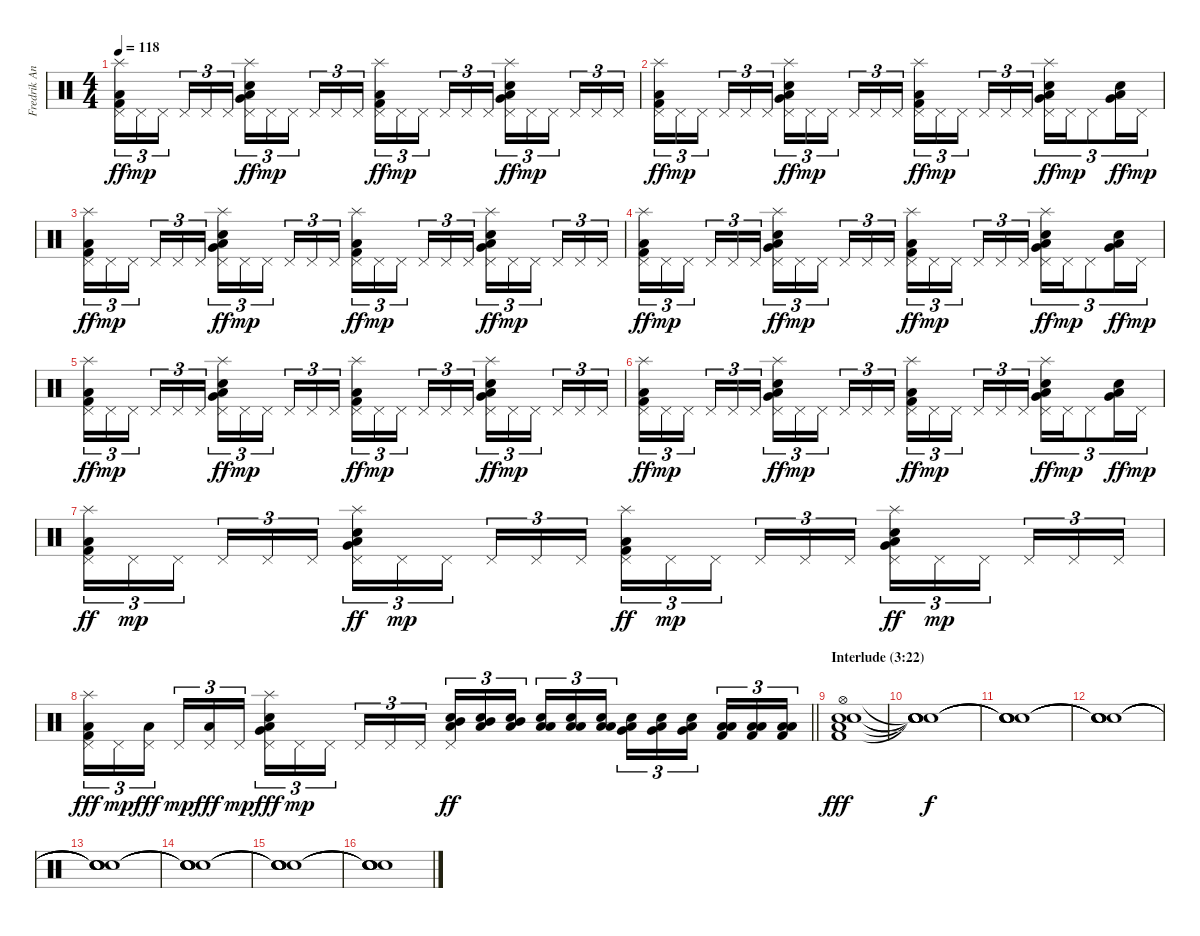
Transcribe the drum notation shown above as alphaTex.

\track ("Fredrik Andersson " "Fredrik An") {instrument percussion}
\staff {score}
\articulation defaults
\ts (4 4)
\tempo 118
\clef neutral
\ks c
("Splash (hit)" "Pedal Hi-Hat (hit)" "Kick (hit) 2" "Low Floor Tom (hit)").16{tu (3 2) dy ff} "Pedal Hi-Hat (hit)".16{tu (3 2) dy mp} "Pedal Hi-Hat (hit)".16{tu (3 2) beam splitsecondary} "Pedal Hi-Hat (hit)".16{tu (3 2)} "Pedal Hi-Hat (hit)".16{tu (3 2)} "Pedal Hi-Hat (hit)".16{tu (3 2)} ("Splash (hit)" "Pedal Hi-Hat (hit)" "Very Low Tom (hit)" "Snare (hit) 2" "Low Floor Tom (hit)").16{tu (3 2) dy ff} "Pedal Hi-Hat (hit)".16{tu (3 2) dy mp} "Pedal Hi-Hat (hit)".16{tu (3 2) beam splitsecondary} "Pedal Hi-Hat (hit)".16{tu (3 2)} "Pedal Hi-Hat (hit)".16{tu (3 2)} "Pedal Hi-Hat (hit)".16{tu (3 2)} ("Splash (hit)" "Pedal Hi-Hat (hit)" "Kick (hit) 2" "Low Floor Tom (hit)").16{tu (3 2) dy ff} "Pedal Hi-Hat (hit)".16{tu (3 2) dy mp} "Pedal Hi-Hat (hit)".16{tu (3 2) beam splitsecondary} "Pedal Hi-Hat (hit)".16{tu (3 2)} "Pedal Hi-Hat (hit)".16{tu (3 2)} "Pedal Hi-Hat (hit)".16{tu (3 2)} ("Splash (hit)" "Pedal Hi-Hat (hit)" "Very Low Tom (hit)" "Snare (hit) 2" "Low Floor Tom (hit)").16{tu (3 2) dy ff} "Pedal Hi-Hat (hit)".16{tu (3 2) dy mp} "Pedal Hi-Hat (hit)".16{tu (3 2) beam splitsecondary} "Pedal Hi-Hat (hit)".16{tu (3 2)} "Pedal Hi-Hat (hit)".16{tu (3 2)} "Pedal Hi-Hat (hit)".16{tu (3 2)} |
("Splash (hit)" "Pedal Hi-Hat (hit)" "Kick (hit) 2" "Low Floor Tom (hit)").16{tu (3 2) dy ff} "Pedal Hi-Hat (hit)".16{tu (3 2) dy mp} "Pedal Hi-Hat (hit)".16{tu (3 2) beam splitsecondary} "Pedal Hi-Hat (hit)".16{tu (3 2)} "Pedal Hi-Hat (hit)".16{tu (3 2)} "Pedal Hi-Hat (hit)".16{tu (3 2)} ("Splash (hit)" "Pedal Hi-Hat (hit)" "Very Low Tom (hit)" "Snare (hit) 2" "Low Floor Tom (hit)").16{tu (3 2) dy ff} "Pedal Hi-Hat (hit)".16{tu (3 2) dy mp} "Pedal Hi-Hat (hit)".16{tu (3 2) beam splitsecondary} "Pedal Hi-Hat (hit)".16{tu (3 2)} "Pedal Hi-Hat (hit)".16{tu (3 2)} "Pedal Hi-Hat (hit)".16{tu (3 2)} ("Splash (hit)" "Pedal Hi-Hat (hit)" "Kick (hit) 2" "Low Floor Tom (hit)").16{tu (3 2) dy ff} "Pedal Hi-Hat (hit)".16{tu (3 2) dy mp} "Pedal Hi-Hat (hit)".16{tu (3 2) beam splitsecondary} "Pedal Hi-Hat (hit)".16{tu (3 2)} "Pedal Hi-Hat (hit)".16{tu (3 2)} "Pedal Hi-Hat (hit)".16{tu (3 2)} ("Splash (hit)" "Pedal Hi-Hat (hit)" "Very Low Tom (hit)" "Snare (hit) 2" "Low Floor Tom (hit)").16{tu (3 2) dy ff} "Pedal Hi-Hat (hit)".16{tu (3 2) dy mp} "Pedal Hi-Hat (hit)".8{tu (3 2)} ("Very Low Tom (hit)" "Snare (hit) 2" "Low Floor Tom (hit)").16{tu (3 2) dy ff} "Pedal Hi-Hat (hit)".16{tu (3 2) dy mp} |
("Splash (hit)" "Pedal Hi-Hat (hit)" "Kick (hit) 2" "Low Floor Tom (hit)").16{tu (3 2) dy ff} "Pedal Hi-Hat (hit)".16{tu (3 2) dy mp} "Pedal Hi-Hat (hit)".16{tu (3 2) beam splitsecondary} "Pedal Hi-Hat (hit)".16{tu (3 2)} "Pedal Hi-Hat (hit)".16{tu (3 2)} "Pedal Hi-Hat (hit)".16{tu (3 2)} ("Splash (hit)" "Pedal Hi-Hat (hit)" "Very Low Tom (hit)" "Snare (hit) 2" "Low Floor Tom (hit)").16{tu (3 2) dy ff} "Pedal Hi-Hat (hit)".16{tu (3 2) dy mp} "Pedal Hi-Hat (hit)".16{tu (3 2) beam splitsecondary} "Pedal Hi-Hat (hit)".16{tu (3 2)} "Pedal Hi-Hat (hit)".16{tu (3 2)} "Pedal Hi-Hat (hit)".16{tu (3 2)} ("Splash (hit)" "Pedal Hi-Hat (hit)" "Kick (hit) 2" "Low Floor Tom (hit)").16{tu (3 2) dy ff} "Pedal Hi-Hat (hit)".16{tu (3 2) dy mp} "Pedal Hi-Hat (hit)".16{tu (3 2) beam splitsecondary} "Pedal Hi-Hat (hit)".16{tu (3 2)} "Pedal Hi-Hat (hit)".16{tu (3 2)} "Pedal Hi-Hat (hit)".16{tu (3 2)} ("Splash (hit)" "Pedal Hi-Hat (hit)" "Very Low Tom (hit)" "Snare (hit) 2" "Low Floor Tom (hit)").16{tu (3 2) dy ff} "Pedal Hi-Hat (hit)".16{tu (3 2) dy mp} "Pedal Hi-Hat (hit)".16{tu (3 2) beam splitsecondary} "Pedal Hi-Hat (hit)".16{tu (3 2)} "Pedal Hi-Hat (hit)".16{tu (3 2)} "Pedal Hi-Hat (hit)".16{tu (3 2)} |
("Splash (hit)" "Pedal Hi-Hat (hit)" "Kick (hit) 2" "Low Floor Tom (hit)").16{tu (3 2) dy ff} "Pedal Hi-Hat (hit)".16{tu (3 2) dy mp} "Pedal Hi-Hat (hit)".16{tu (3 2) beam splitsecondary} "Pedal Hi-Hat (hit)".16{tu (3 2)} "Pedal Hi-Hat (hit)".16{tu (3 2)} "Pedal Hi-Hat (hit)".16{tu (3 2)} ("Splash (hit)" "Pedal Hi-Hat (hit)" "Very Low Tom (hit)" "Snare (hit) 2" "Low Floor Tom (hit)").16{tu (3 2) dy ff} "Pedal Hi-Hat (hit)".16{tu (3 2) dy mp} "Pedal Hi-Hat (hit)".16{tu (3 2) beam splitsecondary} "Pedal Hi-Hat (hit)".16{tu (3 2)} "Pedal Hi-Hat (hit)".16{tu (3 2)} "Pedal Hi-Hat (hit)".16{tu (3 2)} ("Splash (hit)" "Pedal Hi-Hat (hit)" "Kick (hit) 2" "Low Floor Tom (hit)").16{tu (3 2) dy ff} "Pedal Hi-Hat (hit)".16{tu (3 2) dy mp} "Pedal Hi-Hat (hit)".16{tu (3 2) beam splitsecondary} "Pedal Hi-Hat (hit)".16{tu (3 2)} "Pedal Hi-Hat (hit)".16{tu (3 2)} "Pedal Hi-Hat (hit)".16{tu (3 2)} ("Splash (hit)" "Pedal Hi-Hat (hit)" "Very Low Tom (hit)" "Snare (hit) 2" "Low Floor Tom (hit)").16{tu (3 2) dy ff} "Pedal Hi-Hat (hit)".16{tu (3 2) dy mp} "Pedal Hi-Hat (hit)".8{tu (3 2)} ("Very Low Tom (hit)" "Snare (hit) 2" "Low Floor Tom (hit)").16{tu (3 2) dy ff} "Pedal Hi-Hat (hit)".16{tu (3 2) dy mp} |
("Splash (hit)" "Pedal Hi-Hat (hit)" "Kick (hit) 2" "Low Floor Tom (hit)").16{tu (3 2) dy ff} "Pedal Hi-Hat (hit)".16{tu (3 2) dy mp} "Pedal Hi-Hat (hit)".16{tu (3 2) beam splitsecondary} "Pedal Hi-Hat (hit)".16{tu (3 2)} "Pedal Hi-Hat (hit)".16{tu (3 2)} "Pedal Hi-Hat (hit)".16{tu (3 2)} ("Splash (hit)" "Pedal Hi-Hat (hit)" "Very Low Tom (hit)" "Snare (hit) 2" "Low Floor Tom (hit)").16{tu (3 2) dy ff} "Pedal Hi-Hat (hit)".16{tu (3 2) dy mp} "Pedal Hi-Hat (hit)".16{tu (3 2) beam splitsecondary} "Pedal Hi-Hat (hit)".16{tu (3 2)} "Pedal Hi-Hat (hit)".16{tu (3 2)} "Pedal Hi-Hat (hit)".16{tu (3 2)} ("Splash (hit)" "Pedal Hi-Hat (hit)" "Kick (hit) 2" "Low Floor Tom (hit)").16{tu (3 2) dy ff} "Pedal Hi-Hat (hit)".16{tu (3 2) dy mp} "Pedal Hi-Hat (hit)".16{tu (3 2) beam splitsecondary} "Pedal Hi-Hat (hit)".16{tu (3 2)} "Pedal Hi-Hat (hit)".16{tu (3 2)} "Pedal Hi-Hat (hit)".16{tu (3 2)} ("Splash (hit)" "Pedal Hi-Hat (hit)" "Very Low Tom (hit)" "Snare (hit) 2" "Low Floor Tom (hit)").16{tu (3 2) dy ff} "Pedal Hi-Hat (hit)".16{tu (3 2) dy mp} "Pedal Hi-Hat (hit)".16{tu (3 2) beam splitsecondary} "Pedal Hi-Hat (hit)".16{tu (3 2)} "Pedal Hi-Hat (hit)".16{tu (3 2)} "Pedal Hi-Hat (hit)".16{tu (3 2)} |
("Splash (hit)" "Pedal Hi-Hat (hit)" "Kick (hit) 2" "Low Floor Tom (hit)").16{tu (3 2) dy ff} "Pedal Hi-Hat (hit)".16{tu (3 2) dy mp} "Pedal Hi-Hat (hit)".16{tu (3 2) beam splitsecondary} "Pedal Hi-Hat (hit)".16{tu (3 2)} "Pedal Hi-Hat (hit)".16{tu (3 2)} "Pedal Hi-Hat (hit)".16{tu (3 2)} ("Splash (hit)" "Pedal Hi-Hat (hit)" "Very Low Tom (hit)" "Snare (hit) 2" "Low Floor Tom (hit)").16{tu (3 2) dy ff} "Pedal Hi-Hat (hit)".16{tu (3 2) dy mp} "Pedal Hi-Hat (hit)".16{tu (3 2) beam splitsecondary} "Pedal Hi-Hat (hit)".16{tu (3 2)} "Pedal Hi-Hat (hit)".16{tu (3 2)} "Pedal Hi-Hat (hit)".16{tu (3 2)} ("Splash (hit)" "Pedal Hi-Hat (hit)" "Kick (hit) 2" "Low Floor Tom (hit)").16{tu (3 2) dy ff} "Pedal Hi-Hat (hit)".16{tu (3 2) dy mp} "Pedal Hi-Hat (hit)".16{tu (3 2) beam splitsecondary} "Pedal Hi-Hat (hit)".16{tu (3 2)} "Pedal Hi-Hat (hit)".16{tu (3 2)} "Pedal Hi-Hat (hit)".16{tu (3 2)} ("Splash (hit)" "Pedal Hi-Hat (hit)" "Very Low Tom (hit)" "Snare (hit) 2" "Low Floor Tom (hit)").16{tu (3 2) dy ff} "Pedal Hi-Hat (hit)".16{tu (3 2) dy mp} "Pedal Hi-Hat (hit)".8{tu (3 2)} ("Very Low Tom (hit)" "Snare (hit) 2" "Low Floor Tom (hit)").16{tu (3 2) dy ff} "Pedal Hi-Hat (hit)".16{tu (3 2) dy mp} |
("Splash (hit)" "Pedal Hi-Hat (hit)" "Kick (hit) 2" "Low Floor Tom (hit)").16{tu (3 2) dy ff} "Pedal Hi-Hat (hit)".16{tu (3 2) dy mp} "Pedal Hi-Hat (hit)".16{tu (3 2) beam splitsecondary} "Pedal Hi-Hat (hit)".16{tu (3 2)} "Pedal Hi-Hat (hit)".16{tu (3 2)} "Pedal Hi-Hat (hit)".16{tu (3 2)} ("Splash (hit)" "Pedal Hi-Hat (hit)" "Very Low Tom (hit)" "Snare (hit) 2" "Low Floor Tom (hit)").16{tu (3 2) dy ff} "Pedal Hi-Hat (hit)".16{tu (3 2) dy mp} "Pedal Hi-Hat (hit)".16{tu (3 2) beam splitsecondary} "Pedal Hi-Hat (hit)".16{tu (3 2)} "Pedal Hi-Hat (hit)".16{tu (3 2)} "Pedal Hi-Hat (hit)".16{tu (3 2)} ("Splash (hit)" "Pedal Hi-Hat (hit)" "Kick (hit) 2" "Low Floor Tom (hit)").16{tu (3 2) dy ff} "Pedal Hi-Hat (hit)".16{tu (3 2) dy mp} "Pedal Hi-Hat (hit)".16{tu (3 2) beam splitsecondary} "Pedal Hi-Hat (hit)".16{tu (3 2)} "Pedal Hi-Hat (hit)".16{tu (3 2)} "Pedal Hi-Hat (hit)".16{tu (3 2)} ("Splash (hit)" "Pedal Hi-Hat (hit)" "Very Low Tom (hit)" "Snare (hit) 2" "Low Floor Tom (hit)").16{tu (3 2) dy ff} "Pedal Hi-Hat (hit)".16{tu (3 2) dy mp} "Pedal Hi-Hat (hit)".16{tu (3 2) beam splitsecondary} "Pedal Hi-Hat (hit)".16{tu (3 2)} "Pedal Hi-Hat (hit)".16{tu (3 2)} "Pedal Hi-Hat (hit)".16{tu (3 2)} |
\barLineRight lightlight
("Splash (hit)" "Pedal Hi-Hat (hit)" "Kick (hit) 2" "Low Floor Tom (hit)").16{tu (3 2) dy fff} "Pedal Hi-Hat (hit)".16{tu (3 2) dy mp} ("Pedal Hi-Hat (hit)" "Low Floor Tom (hit)").16{tu (3 2) dy fff beam splitsecondary} "Pedal Hi-Hat (hit)".16{tu (3 2) dy mp} ("Pedal Hi-Hat (hit)" "Low Floor Tom (hit)").16{tu (3 2) dy fff} "Pedal Hi-Hat (hit)".16{tu (3 2) dy mp} ("Splash (hit)" "Pedal Hi-Hat (hit)" "Very Low Tom (hit)" "Snare (hit) 2" "Low Floor Tom (hit)").16{tu (3 2) dy fff} "Pedal Hi-Hat (hit)".16{tu (3 2) dy mp} "Pedal Hi-Hat (hit)".16{tu (3 2) beam splitsecondary} "Pedal Hi-Hat (hit)".16{tu (3 2)} "Pedal Hi-Hat (hit)".16{tu (3 2)} "Pedal Hi-Hat (hit)".16{tu (3 2)} ("Pedal Hi-Hat (hit)" "Mid Tom (hit)" "Snare (hit) 2" "Low Floor Tom (hit)").16{tu (3 2) dy ff} ("Mid Tom (hit)" "Snare (hit) 2" "Low Floor Tom (hit)").16{tu (3 2)} ("Mid Tom (hit)" "Snare (hit) 2" "Low Floor Tom (hit)").16{tu (3 2) beam splitsecondary} ("Low Tom (hit)" "Snare (hit) 2" "Low Floor Tom (hit)").16{tu (3 2)} ("Low Tom (hit)" "Snare (hit) 2" "Low Floor Tom (hit)").16{tu (3 2)} ("Low Tom (hit)" "Snare (hit) 2" "Low Floor Tom (hit)").16{tu (3 2)} ("Very Low Tom (hit)" "Snare (hit) 2" "Low Floor Tom (hit)").16{tu (3 2)} ("Very Low Tom (hit)" "Snare (hit) 2" "Low Floor Tom (hit)").16{tu (3 2)} ("Very Low Tom (hit)" "Snare (hit) 2" "Low Floor Tom (hit)").16{tu (3 2) beam splitsecondary} ("Low Tom (hit)" "Kick (hit) 2" "Low Floor Tom (hit)").16{tu (3 2)} ("Low Tom (hit)" "Kick (hit) 2" "Low Floor Tom (hit)").16{tu (3 2)} ("Low Tom (hit)" "Kick (hit) 2" "Low Floor Tom (hit)").16{tu (3 2)} |
\section ("" "Interlude (3:22)")
("Hi-Hat (open)" "Electric Snare (hit)" "Snare (hit) 2" "Kick (hit) 2" "Low Floor Tom (hit)").1{dy fff} |
("Snare (hit)"{t} "Snare (hit)"{t} "Snare (hit)"{t} "Snare (hit)"{t} "Snare (hit)"{t}).1{dy f} |
("Snare (hit)"{t} "Snare (hit)"{t} "Snare (hit)"{t} "Snare (hit)"{t} "Snare (hit)"{t}).1 |
("Snare (hit)"{t} "Snare (hit)"{t} "Snare (hit)"{t} "Snare (hit)"{t} "Snare (hit)"{t}).1 |
("Snare (hit)"{t} "Snare (hit)"{t} "Snare (hit)"{t} "Snare (hit)"{t} "Snare (hit)"{t}).1 |
("Snare (hit)"{t} "Snare (hit)"{t} "Snare (hit)"{t} "Snare (hit)"{t} "Snare (hit)"{t}).1 |
("Snare (hit)"{t} "Snare (hit)"{t} "Snare (hit)"{t} "Snare (hit)"{t} "Snare (hit)"{t}).1 |
("Snare (hit)"{t} "Snare (hit)"{t} "Snare (hit)"{t} "Snare (hit)"{t} "Snare (hit)"{t}).1
